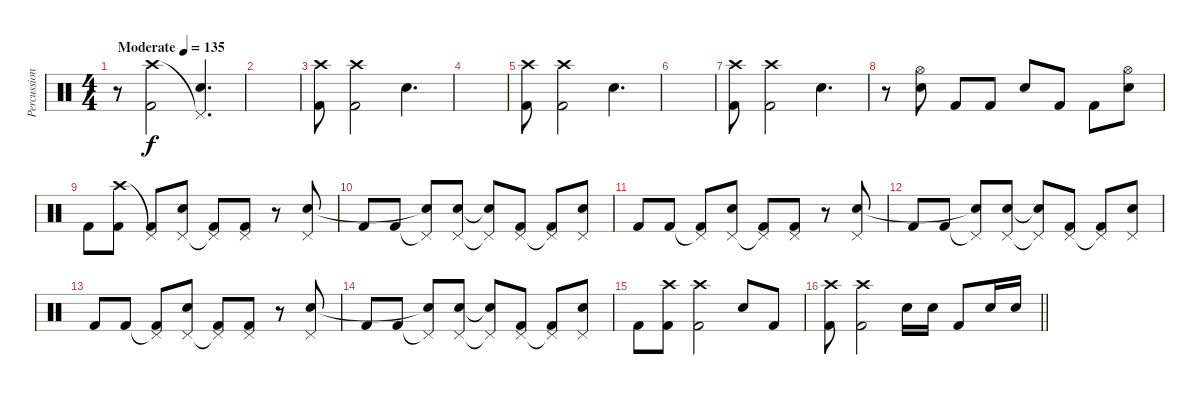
\track ("Percussion" "Percussion") {instrument percussion}
\staff {score}
\articulation defaults
\ts (4 4)
\tempo (135 "Moderate")
\clef neutral
\ks c
r.8{dy f} ("Crash high (hit)" "Kick (hit) 2").2 ("Pedal Hi-Hat (hit)"{t} "Snare (hit)").4{d} |
|
("Crash high (hit)" "Kick (hit) 2").8 ("Crash high (hit)" "Kick (hit) 2").2 "Snare (hit)".4{d} |
|
("Crash high (hit)" "Kick (hit) 2").8 ("Crash high (hit)" "Kick (hit) 2").2 "Snare (hit)".4{d} |
|
("Crash high (hit)" "Kick (hit) 2").8 ("Crash high (hit)" "Kick (hit) 2").2 "Snare (hit)".4{d} |
r.8 ("Hi-Hat (open)" "Electric Snare (hit)").8 "Kick (hit) 2".8 "Kick (hit) 2".8 "Electric Snare (hit)".8 "Kick (hit) 2".8 "Kick (hit) 2".8 ("Hi-Hat (open)" "Electric Snare (hit)").8 |
"Kick (hit) 2".8 ("Crash high (hit)" "Kick (hit) 2").8 ("Pedal Hi-Hat (hit)"{t} "Kick (hit) 2").8 ("Pedal Hi-Hat (hit)" "Electric Snare (hit)").8 ("Pedal Hi-Hat (hit)"{t} "Kick (hit) 2").8 ("Pedal Hi-Hat (hit)" "Kick (hit) 2").8 r.8 ("Pedal Hi-Hat (hit)" "Electric Snare (hit)").8 |
"Kick (hit) 2".8 "Kick (hit) 2".8 ("Pedal Hi-Hat (hit)"{t} "Electric Snare (hit)"{t}).8 ("Pedal Hi-Hat (hit)" "Electric Snare (hit)").8 ("Pedal Hi-Hat (hit)"{t} "Snare (hit)"{t}).8 ("Pedal Hi-Hat (hit)" "Kick (hit) 2").8 ("Pedal Hi-Hat (hit)"{t} "Kick (hit) 2").8 ("Pedal Hi-Hat (hit)" "Electric Snare (hit)").8 |
"Kick (hit) 2".8 "Kick (hit) 2".8 ("Pedal Hi-Hat (hit)"{t} "Kick (hit) 2").8 ("Pedal Hi-Hat (hit)" "Electric Snare (hit)").8 ("Pedal Hi-Hat (hit)"{t} "Kick (hit) 2").8 ("Pedal Hi-Hat (hit)" "Kick (hit) 2").8 r.8 ("Pedal Hi-Hat (hit)" "Electric Snare (hit)").8 |
"Kick (hit) 2".8 "Kick (hit) 2".8 ("Pedal Hi-Hat (hit)"{t} "Electric Snare (hit)"{t}).8 ("Pedal Hi-Hat (hit)" "Electric Snare (hit)").8 ("Pedal Hi-Hat (hit)"{t} "Snare (hit)"{t}).8 ("Pedal Hi-Hat (hit)" "Kick (hit) 2").8 ("Pedal Hi-Hat (hit)"{t} "Kick (hit) 2").8 ("Pedal Hi-Hat (hit)" "Electric Snare (hit)").8 |
"Kick (hit) 2".8 "Kick (hit) 2".8 ("Pedal Hi-Hat (hit)"{t} "Kick (hit) 2").8 ("Pedal Hi-Hat (hit)" "Electric Snare (hit)").8 ("Pedal Hi-Hat (hit)"{t} "Kick (hit) 2").8 ("Pedal Hi-Hat (hit)" "Kick (hit) 2").8 r.8 ("Pedal Hi-Hat (hit)" "Electric Snare (hit)").8 |
"Kick (hit) 2".8 "Kick (hit) 2".8 ("Pedal Hi-Hat (hit)"{t} "Electric Snare (hit)"{t}).8 ("Pedal Hi-Hat (hit)" "Electric Snare (hit)").8 ("Pedal Hi-Hat (hit)"{t} "Snare (hit)"{t}).8 ("Pedal Hi-Hat (hit)" "Kick (hit) 2").8 ("Pedal Hi-Hat (hit)"{t} "Kick (hit) 2").8 ("Pedal Hi-Hat (hit)" "Electric Snare (hit)").8 |
"Kick (hit) 2".8 ("Crash high (hit)" "Kick (hit) 2").8 ("Crash high (hit)" "Kick (hit) 2").2 "Electric Snare (hit)".8 "Kick (hit) 2".8 |
\barLineRight lightlight
("Crash high (hit)" "Kick (hit) 2").8 ("Crash high (hit)" "Kick (hit) 2").2 "Electric Snare (hit)".16 "Electric Snare (hit)".16 "Kick (hit) 2".8 "Electric Snare (hit)".16 "Electric Snare (hit)".16
